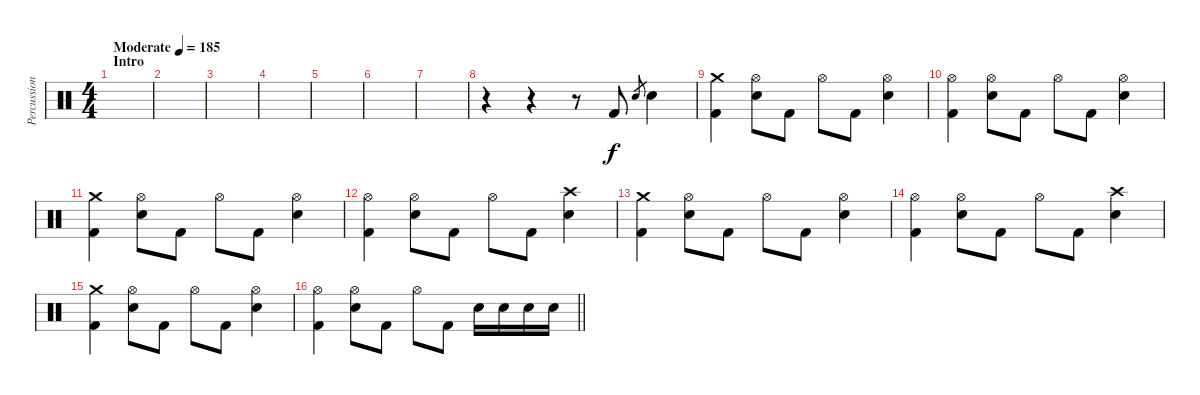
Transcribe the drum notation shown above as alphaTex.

\track ("Percussions" "Percussion") {instrument percussion}
\staff {score}
\articulation defaults
\ts (4 4)
\section ("" "Intro")
\tempo (185 "Moderate")
\clef neutral
\ks c
|
|
|
|
|
|
|
r.4 r.4 r.8 "Kick (hit) 2".8 "Electric Snare (hit)".8{gr} "Electric Snare (hit)".4 |
("Crash medium (hit)" "Kick (hit) 2").4 ("Hi-Hat (open)" "Electric Snare (hit)").8 "Kick (hit) 2".8 "Hi-Hat (open)".8 "Kick (hit) 2".8 ("Hi-Hat (open)" "Electric Snare (hit)").4 |
("Hi-Hat (open)" "Kick (hit) 2").4 ("Hi-Hat (open)" "Electric Snare (hit)").8 "Kick (hit) 2".8 "Hi-Hat (open)".8 "Kick (hit) 2".8 ("Hi-Hat (open)" "Electric Snare (hit)").4 |
("Crash medium (hit)" "Kick (hit) 2").4 ("Hi-Hat (open)" "Electric Snare (hit)").8 "Kick (hit) 2".8 "Hi-Hat (open)".8 "Kick (hit) 2".8 ("Hi-Hat (open)" "Electric Snare (hit)").4 |
("Hi-Hat (open)" "Kick (hit) 2").4 ("Hi-Hat (open)" "Electric Snare (hit)").8 "Kick (hit) 2".8 "Hi-Hat (open)".8 "Kick (hit) 2".8 ("Crash high (hit)" "Electric Snare (hit)").4 |
("Crash medium (hit)" "Kick (hit) 2").4 ("Hi-Hat (open)" "Electric Snare (hit)").8 "Kick (hit) 2".8 "Hi-Hat (open)".8 "Kick (hit) 2".8 ("Hi-Hat (open)" "Electric Snare (hit)").4 |
("Hi-Hat (open)" "Kick (hit) 2").4 ("Hi-Hat (open)" "Electric Snare (hit)").8 "Kick (hit) 2".8 "Hi-Hat (open)".8 "Kick (hit) 2".8 ("Crash high (hit)" "Electric Snare (hit)").4 |
("Crash medium (hit)" "Kick (hit) 2").4 ("Hi-Hat (open)" "Electric Snare (hit)").8 "Kick (hit) 2".8 "Hi-Hat (open)".8 "Kick (hit) 2".8 ("Hi-Hat (open)" "Electric Snare (hit)").4 |
\barLineRight lightlight
("Hi-Hat (open)" "Kick (hit) 2").4 ("Hi-Hat (open)" "Electric Snare (hit)").8 "Kick (hit) 2".8 "Hi-Hat (open)".8 "Kick (hit) 2".8 "Electric Snare (hit)".16 "Electric Snare (hit)".16 "Electric Snare (hit)".16 "Electric Snare (hit)".16
